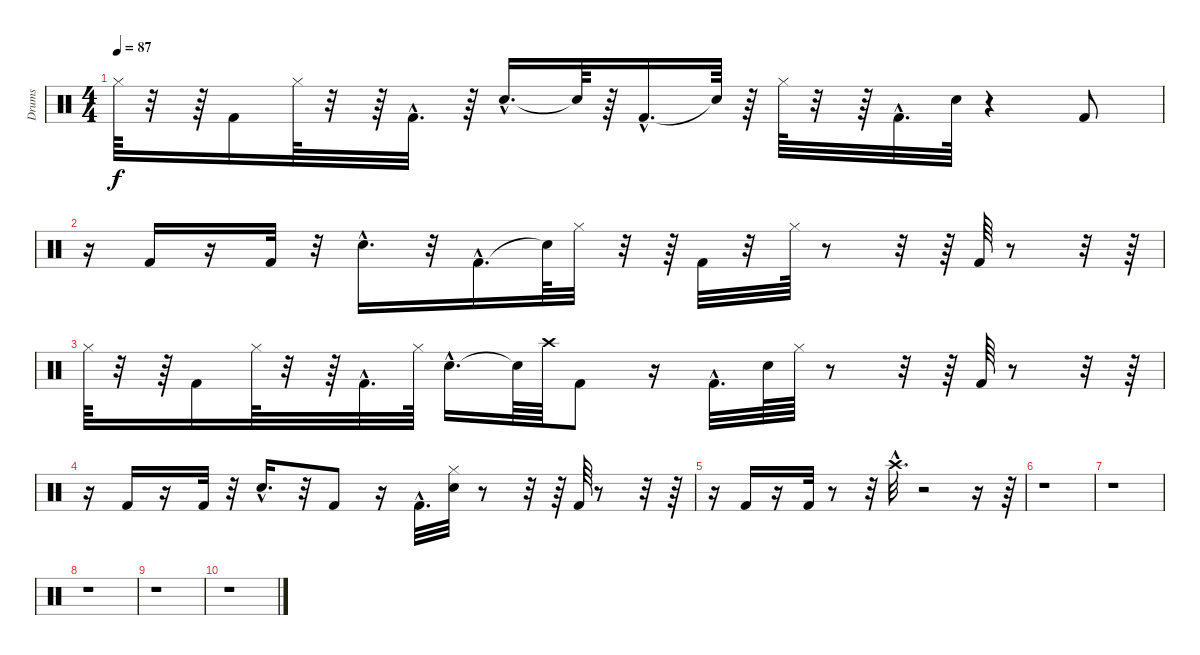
\track ("Drums" "Drums") {instrument percussion}
\staff {score}
\articulation defaults
\ts (4 4)
\tempo 87
\clef neutral
\ks c "Hi-Hat (closed)".64{dy f}
r.32 r.64 "Kick (hit) 2".16 "Hi-Hat (closed)".64 r.32 r.64 "Kick (hit) 2"{hac}.32{d} r.64 "Electric Snare (hit)"{hac}.16{d} "Snare (hit)"{t}.64 r.64 "Kick (hit) 2"{hac}.16{d} "Snare (hit)"{t}.64 r.64 "Hi-Hat (closed)".64 r.32 r.64 "Kick (hit) 2"{hac}.32{d} "Electric Snare (hit)".64 r.4 "Kick (hit) 2".8 |
r.16 "Kick (hit) 2".16 r.16 "Kick (hit) 2".32 r.32 "Electric Snare (hit)"{hac}.16{d} r.32 "Kick (hit) 2"{hac}.16{d} "Snare (hit)"{t}.64 "Hi-Hat (closed)".32 r.32 r.64 "Kick (hit) 2".32 r.32 "Hi-Hat (closed)".64 r.8 r.32 r.64 "Kick (hit) 2".64 r.8 r.32 r.64 |
"Hi-Hat (closed)".64 r.32 r.64 "Kick (hit) 2".16 "Hi-Hat (closed)".64 r.32 r.64 "Kick (hit) 2"{hac}.32{d} "Hi-Hat (closed)".64 "Electric Snare (hit)"{hac}.16{d} "Snare (hit)"{t}.64 "Crash high (hit)".64 "Kick (hit) 2".8 r.16 "Kick (hit) 2"{hac}.32{d} "Electric Snare (hit)".64 "Hi-Hat (closed)".64 r.8 r.32 r.64 "Kick (hit) 2".64 r.8 r.32 r.64 |
r.16 "Kick (hit) 2".16 r.16 "Kick (hit) 2".32 r.32 "Electric Snare (hit)"{hac}.16{d} r.32 "Kick (hit) 2".8 r.16 "Kick (hit) 2"{hac}.32{d} ("Electric Snare (hit)" "Hi-Hat (closed)").32 r.8 r.32 r.64 "Kick (hit) 2".64 r.8 r.32 r.64 |
r.16 "Kick (hit) 2".16 r.16 "Kick (hit) 2".32 r.8 r.32 "Crash high (hit)"{hac}.32{d} r.2 r.16 r.64 |
r.1 |
r.1 |
r.1 |
r.1 |
r.1
